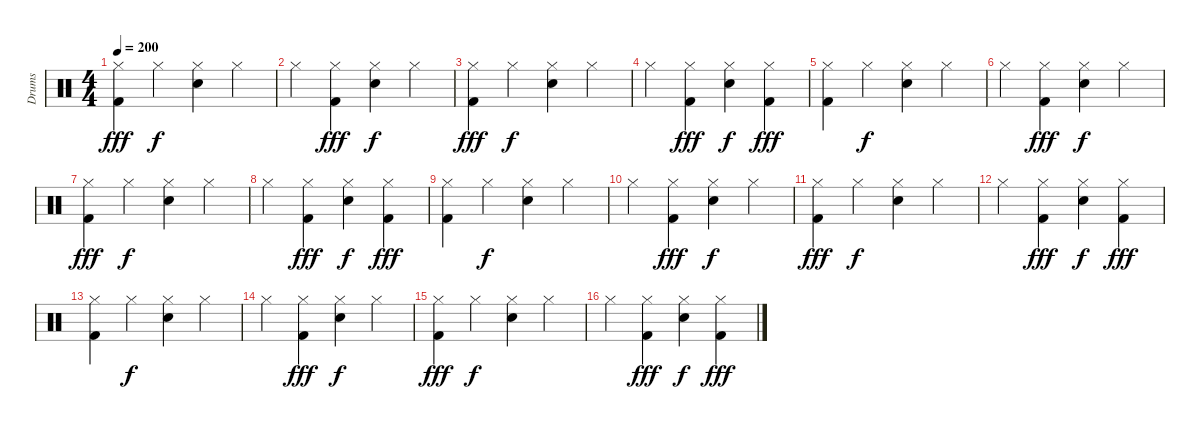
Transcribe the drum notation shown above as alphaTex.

\track ("Drums" "Drums") {instrument percussion}
\staff {score}
\articulation defaults
\ts (4 4)
\tempo 200
\clef neutral
\ks c
("Hi-Hat (closed)" "Kick (hit) 2").4{dy fff} "Hi-Hat (closed)".4{dy f} ("Hi-Hat (closed)" "Electric Snare (hit)").4 "Hi-Hat (closed)".4 |
"Hi-Hat (closed)".4 ("Hi-Hat (closed)" "Kick (hit) 2").4{dy fff} ("Hi-Hat (closed)" "Electric Snare (hit)").4{dy f} "Hi-Hat (closed)".4 |
("Hi-Hat (closed)" "Kick (hit) 2").4{dy fff} "Hi-Hat (closed)".4{dy f} ("Hi-Hat (closed)" "Electric Snare (hit)").4 "Hi-Hat (closed)".4 |
"Hi-Hat (closed)".4 ("Hi-Hat (closed)" "Kick (hit) 2").4{dy fff} ("Hi-Hat (closed)" "Electric Snare (hit)").4{dy f} ("Hi-Hat (closed)" "Kick (hit) 2").4{dy fff} |
("Hi-Hat (closed)" "Kick (hit) 2").4 "Hi-Hat (closed)".4{dy f} ("Hi-Hat (closed)" "Electric Snare (hit)").4 "Hi-Hat (closed)".4 |
"Hi-Hat (closed)".4 ("Hi-Hat (closed)" "Kick (hit) 2").4{dy fff} ("Hi-Hat (closed)" "Electric Snare (hit)").4{dy f} "Hi-Hat (closed)".4 |
("Hi-Hat (closed)" "Kick (hit) 2").4{dy fff} "Hi-Hat (closed)".4{dy f} ("Hi-Hat (closed)" "Electric Snare (hit)").4 "Hi-Hat (closed)".4 |
"Hi-Hat (closed)".4 ("Hi-Hat (closed)" "Kick (hit) 2").4{dy fff} ("Hi-Hat (closed)" "Electric Snare (hit)").4{dy f} ("Hi-Hat (closed)" "Kick (hit) 2").4{dy fff} |
("Hi-Hat (closed)" "Kick (hit) 2").4 "Hi-Hat (closed)".4{dy f} ("Hi-Hat (closed)" "Electric Snare (hit)").4 "Hi-Hat (closed)".4 |
"Hi-Hat (closed)".4 ("Hi-Hat (closed)" "Kick (hit) 2").4{dy fff} ("Hi-Hat (closed)" "Electric Snare (hit)").4{dy f} "Hi-Hat (closed)".4 |
("Hi-Hat (closed)" "Kick (hit) 2").4{dy fff} "Hi-Hat (closed)".4{dy f} ("Hi-Hat (closed)" "Electric Snare (hit)").4 "Hi-Hat (closed)".4 |
"Hi-Hat (closed)".4 ("Hi-Hat (closed)" "Kick (hit) 2").4{dy fff} ("Hi-Hat (closed)" "Electric Snare (hit)").4{dy f} ("Hi-Hat (closed)" "Kick (hit) 2").4{dy fff} |
("Hi-Hat (closed)" "Kick (hit) 2").4 "Hi-Hat (closed)".4{dy f} ("Hi-Hat (closed)" "Electric Snare (hit)").4 "Hi-Hat (closed)".4 |
"Hi-Hat (closed)".4 ("Hi-Hat (closed)" "Kick (hit) 2").4{dy fff} ("Hi-Hat (closed)" "Electric Snare (hit)").4{dy f} "Hi-Hat (closed)".4 |
("Hi-Hat (closed)" "Kick (hit) 2").4{dy fff} "Hi-Hat (closed)".4{dy f} ("Hi-Hat (closed)" "Electric Snare (hit)").4 "Hi-Hat (closed)".4 |
"Hi-Hat (closed)".4 ("Hi-Hat (closed)" "Kick (hit) 2").4{dy fff} ("Hi-Hat (closed)" "Electric Snare (hit)").4{dy f} ("Hi-Hat (closed)" "Kick (hit) 2").4{dy fff}
